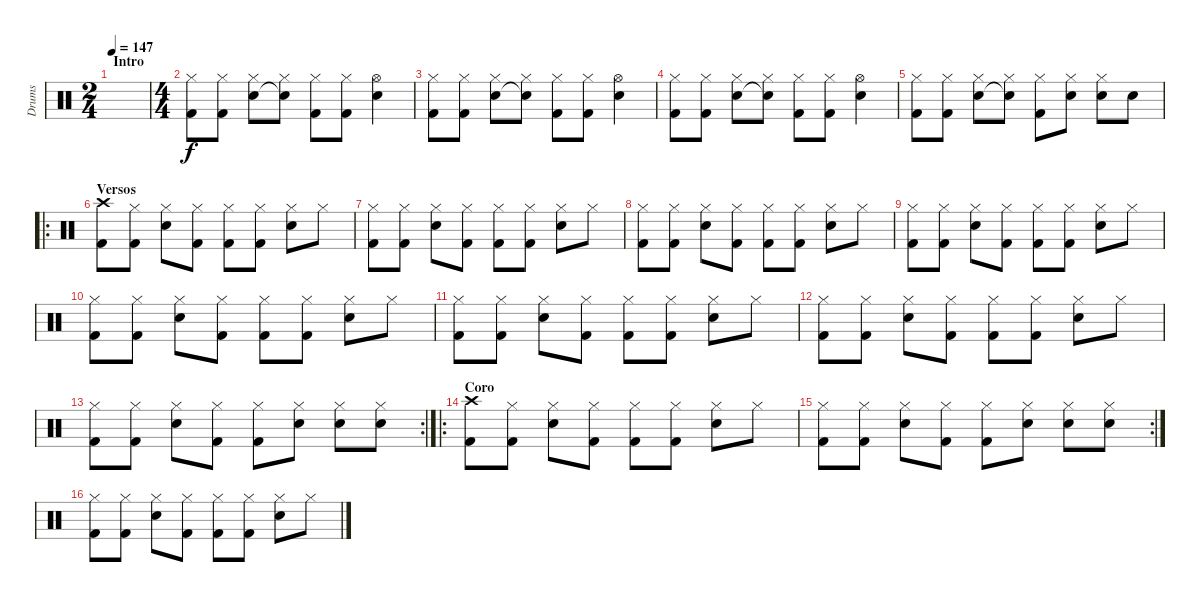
\track ("Drums" "Drums") {instrument percussion}
\staff {score}
\articulation defaults
\ts (2 4)
\section ("" "Intro")
\tempo 147
\clef neutral
\ks c
|
\ts (4 4)
("Hi-Hat (closed)" "Kick (hit) 2").8 ("Hi-Hat (closed)" "Kick (hit) 2").8 ("Hi-Hat (closed)" "Snare (hit) 2").8 ("Hi-Hat (closed)" "Snare (hit)"{t}).8 ("Hi-Hat (closed)" "Kick (hit) 2").8 ("Hi-Hat (closed)" "Kick (hit) 2").8 ("Hi-Hat (open)" "Snare (hit) 2").4 |
("Hi-Hat (closed)" "Kick (hit) 2").8 ("Hi-Hat (closed)" "Kick (hit) 2").8 ("Hi-Hat (closed)" "Snare (hit) 2").8 ("Hi-Hat (closed)" "Snare (hit)"{t}).8 ("Hi-Hat (closed)" "Kick (hit) 2").8 ("Hi-Hat (closed)" "Kick (hit) 2").8 ("Hi-Hat (open)" "Snare (hit) 2").4 |
("Hi-Hat (closed)" "Kick (hit) 2").8 ("Hi-Hat (closed)" "Kick (hit) 2").8 ("Hi-Hat (closed)" "Snare (hit) 2").8 ("Hi-Hat (closed)" "Snare (hit)"{t}).8 ("Hi-Hat (closed)" "Kick (hit) 2").8 ("Hi-Hat (closed)" "Kick (hit) 2").8 ("Hi-Hat (open)" "Snare (hit) 2").4 |
("Hi-Hat (closed)" "Kick (hit) 2").8 ("Hi-Hat (closed)" "Kick (hit) 2").8 ("Hi-Hat (closed)" "Snare (hit) 2").8 ("Hi-Hat (closed)" "Snare (hit)"{t}).8 ("Hi-Hat (closed)" "Kick (hit) 2").8 ("Hi-Hat (closed)" "Snare (hit) 2").8 ("Hi-Hat (closed)" "Snare (hit) 2").8 "Snare (hit) 2".8 |
\ro
\section ("" "Versos")
("Crash high (hit)" "Kick (hit) 2").8 ("Hi-Hat (closed)" "Kick (hit) 2").8 ("Hi-Hat (closed)" "Snare (hit) 2").8 ("Hi-Hat (closed)" "Kick (hit) 2").8 ("Hi-Hat (closed)" "Kick (hit) 2").8 ("Hi-Hat (closed)" "Kick (hit) 2").8 ("Hi-Hat (closed)" "Snare (hit) 2").8 "Hi-Hat (closed)".8 |
("Hi-Hat (closed)" "Kick (hit) 2").8 ("Hi-Hat (closed)" "Kick (hit) 2").8 ("Hi-Hat (closed)" "Snare (hit) 2").8 ("Hi-Hat (closed)" "Kick (hit) 2").8 ("Hi-Hat (closed)" "Kick (hit) 2").8 ("Hi-Hat (closed)" "Kick (hit) 2").8 ("Hi-Hat (closed)" "Snare (hit) 2").8 "Hi-Hat (closed)".8 |
("Hi-Hat (closed)" "Kick (hit) 2").8 ("Hi-Hat (closed)" "Kick (hit) 2").8 ("Hi-Hat (closed)" "Snare (hit) 2").8 ("Hi-Hat (closed)" "Kick (hit) 2").8 ("Hi-Hat (closed)" "Kick (hit) 2").8 ("Hi-Hat (closed)" "Kick (hit) 2").8 ("Hi-Hat (closed)" "Snare (hit) 2").8 "Hi-Hat (closed)".8 |
("Hi-Hat (closed)" "Kick (hit) 2").8 ("Hi-Hat (closed)" "Kick (hit) 2").8 ("Hi-Hat (closed)" "Snare (hit) 2").8 ("Hi-Hat (closed)" "Kick (hit) 2").8 ("Hi-Hat (closed)" "Kick (hit) 2").8 ("Hi-Hat (closed)" "Kick (hit) 2").8 ("Hi-Hat (closed)" "Snare (hit) 2").8 "Hi-Hat (closed)".8 |
("Hi-Hat (closed)" "Kick (hit) 2").8 ("Hi-Hat (closed)" "Kick (hit) 2").8 ("Hi-Hat (closed)" "Snare (hit) 2").8 ("Hi-Hat (closed)" "Kick (hit) 2").8 ("Hi-Hat (closed)" "Kick (hit) 2").8 ("Hi-Hat (closed)" "Kick (hit) 2").8 ("Hi-Hat (closed)" "Snare (hit) 2").8 "Hi-Hat (closed)".8 |
("Hi-Hat (closed)" "Kick (hit) 2").8 ("Hi-Hat (closed)" "Kick (hit) 2").8 ("Hi-Hat (closed)" "Snare (hit) 2").8 ("Hi-Hat (closed)" "Kick (hit) 2").8 ("Hi-Hat (closed)" "Kick (hit) 2").8 ("Hi-Hat (closed)" "Kick (hit) 2").8 ("Hi-Hat (closed)" "Snare (hit) 2").8 "Hi-Hat (closed)".8 |
("Hi-Hat (closed)" "Kick (hit) 2").8 ("Hi-Hat (closed)" "Kick (hit) 2").8 ("Hi-Hat (closed)" "Snare (hit) 2").8 ("Hi-Hat (closed)" "Kick (hit) 2").8 ("Hi-Hat (closed)" "Kick (hit) 2").8 ("Hi-Hat (closed)" "Kick (hit) 2").8 ("Hi-Hat (closed)" "Snare (hit) 2").8 "Hi-Hat (closed)".8 |
\rc 2
("Hi-Hat (closed)" "Kick (hit) 2").8 ("Hi-Hat (closed)" "Kick (hit) 2").8 ("Hi-Hat (closed)" "Snare (hit) 2").8 ("Hi-Hat (closed)" "Kick (hit) 2").8 ("Hi-Hat (closed)" "Kick (hit) 2").8 ("Hi-Hat (closed)" "Snare (hit) 2").8 ("Hi-Hat (closed)" "Snare (hit) 2").8 ("Hi-Hat (closed)" "Snare (hit) 2").8 |
\ro
\section ("" "Coro")
("Crash high (hit)" "Kick (hit) 2").8 ("Hi-Hat (closed)" "Kick (hit) 2").8 ("Hi-Hat (closed)" "Snare (hit) 2").8 ("Hi-Hat (closed)" "Kick (hit) 2").8 ("Hi-Hat (closed)" "Kick (hit) 2").8 ("Hi-Hat (closed)" "Kick (hit) 2").8 ("Hi-Hat (closed)" "Snare (hit) 2").8 "Hi-Hat (closed)".8 |
\rc 2
("Hi-Hat (closed)" "Kick (hit) 2").8 ("Hi-Hat (closed)" "Kick (hit) 2").8 ("Hi-Hat (closed)" "Snare (hit) 2").8 ("Hi-Hat (closed)" "Kick (hit) 2").8 ("Hi-Hat (closed)" "Kick (hit) 2").8 ("Hi-Hat (closed)" "Snare (hit) 2").8 ("Hi-Hat (closed)" "Snare (hit) 2").8 ("Hi-Hat (closed)" "Snare (hit) 2").8 |
("Hi-Hat (closed)" "Kick (hit) 2").8 ("Hi-Hat (closed)" "Kick (hit) 2").8 ("Hi-Hat (closed)" "Snare (hit) 2").8 ("Hi-Hat (closed)" "Kick (hit) 2").8 ("Hi-Hat (closed)" "Kick (hit) 2").8 ("Hi-Hat (closed)" "Kick (hit) 2").8 ("Hi-Hat (closed)" "Snare (hit) 2").8 "Hi-Hat (closed)".8
